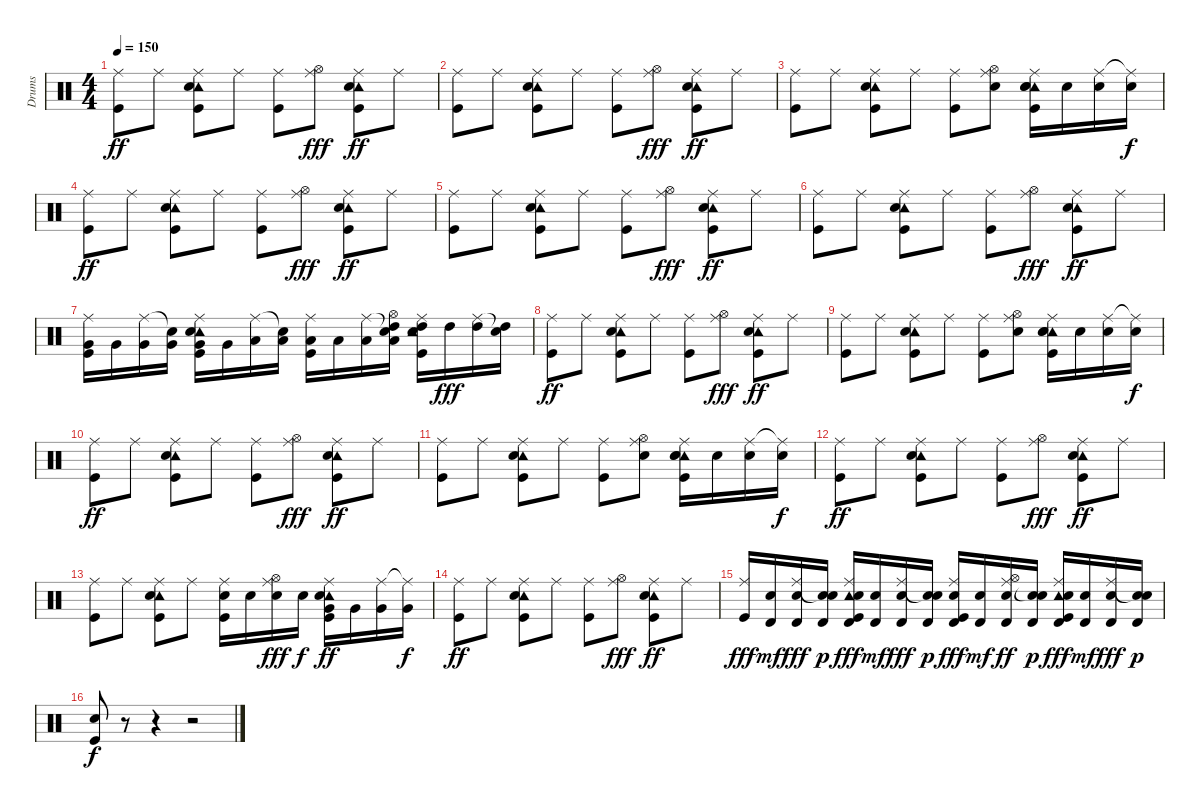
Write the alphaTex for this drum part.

\track ("Drums" "Drums") {instrument percussion}
\staff {score}
\articulation defaults
\ts (4 4)
\tempo 150
\clef neutral
\ks c
("Ride (middle)" "Kick (hit)").8{dy ff} "Ride (middle)".8 ("Ride (middle)" "Tambourine (hit)" "Electric Snare (hit)" "Kick (hit)").8 "Ride (middle)".8 ("Ride (middle)" "Kick (hit)").8 ("Ride (middle)" "Hi-Hat (open)").8{dy fff} ("Ride (middle)" "Tambourine (hit)" "Electric Snare (hit)" "Kick (hit)").8{dy ff} "Ride (middle)".8 |
("Ride (middle)" "Kick (hit)").8 "Ride (middle)".8 ("Ride (middle)" "Tambourine (hit)" "Electric Snare (hit)" "Kick (hit)").8 "Ride (middle)".8 ("Ride (middle)" "Kick (hit)").8 ("Ride (middle)" "Hi-Hat (open)").8{dy fff} ("Ride (middle)" "Tambourine (hit)" "Electric Snare (hit)" "Kick (hit)").8{dy ff} "Ride (middle)".8 |
("Ride (middle)" "Kick (hit)").8 "Ride (middle)".8 ("Ride (middle)" "Tambourine (hit)" "Electric Snare (hit)" "Kick (hit)").8 "Ride (middle)".8 ("Ride (middle)" "Kick (hit)").8 ("Ride (middle)" "Hi-Hat (open)" "Snare (hit) 2").8 ("Ride (middle)" "Tambourine (hit)" "Electric Snare (hit)" "Snare (hit) 2" "Kick (hit)").16 "Snare (hit) 2".16 ("Ride (middle)" "Snare (hit) 2").16 ("Ride (middle)"{t} "Snare (hit) 2").16{dy f} |
("Ride (middle)" "Kick (hit)").8{dy ff} "Ride (middle)".8 ("Ride (middle)" "Tambourine (hit)" "Electric Snare (hit)" "Kick (hit)").8 "Ride (middle)".8 ("Ride (middle)" "Kick (hit)").8 ("Ride (middle)" "Hi-Hat (open)").8{dy fff} ("Ride (middle)" "Tambourine (hit)" "Electric Snare (hit)" "Kick (hit)").8{dy ff} "Ride (middle)".8 |
("Ride (middle)" "Kick (hit)").8 "Ride (middle)".8 ("Ride (middle)" "Tambourine (hit)" "Electric Snare (hit)" "Kick (hit)").8 "Ride (middle)".8 ("Ride (middle)" "Kick (hit)").8 ("Ride (middle)" "Hi-Hat (open)").8{dy fff} ("Ride (middle)" "Tambourine (hit)" "Electric Snare (hit)" "Kick (hit)").8{dy ff} "Ride (middle)".8 |
("Ride (middle)" "Kick (hit)").8 "Ride (middle)".8 ("Ride (middle)" "Tambourine (hit)" "Electric Snare (hit)" "Kick (hit)").8 "Ride (middle)".8 ("Ride (middle)" "Kick (hit)").8 ("Ride (middle)" "Hi-Hat (open)").8{dy fff} ("Ride (middle)" "Tambourine (hit)" "Electric Snare (hit)" "Kick (hit)").8{dy ff} "Ride (middle)".8 |
("Ride (middle)" "Very Low Tom (hit)" "Kick (hit)").16 "Very Low Tom (hit)".16 ("Ride (middle)" "Very Low Tom (hit)").16 ("Snare (hit)"{t} "Very Low Tom (hit)").16 ("Ride (middle)" "Tambourine (hit)" "Electric Snare (hit)" "Very Low Tom (hit)" "Kick (hit)").16 "Very Low Tom (hit)".16 ("Ride (middle)" "Low Floor Tom (hit)").16 ("Snare (hit)"{t} "Low Floor Tom (hit)").16 ("Ride (middle)" "Low Floor Tom (hit)" "Kick (hit)").16 "Low Floor Tom (hit)".16 ("Ride (middle)" "Low Floor Tom (hit)").16 ("Snare (hit)"{t} "Hi-Hat (open)" "High Tom (hit)" "Low Floor Tom (hit)").16 ("Ride (middle)" "Tambourine (hit)" "High Tom (hit)" "Snare (hit) 2" "Kick (hit)").16 "High Tom (hit)".16{dy fff} ("Ride (middle)" "High Tom (hit)").16 ("Snare (hit)"{t} "High Tom (hit)").16 |
("Ride (middle)" "Kick (hit)").8{dy ff} "Ride (middle)".8 ("Ride (middle)" "Tambourine (hit)" "Electric Snare (hit)" "Kick (hit)").8 "Ride (middle)".8 ("Ride (middle)" "Kick (hit)").8 ("Ride (middle)" "Hi-Hat (open)").8{dy fff} ("Ride (middle)" "Tambourine (hit)" "Electric Snare (hit)" "Kick (hit)").8{dy ff} "Ride (middle)".8 |
("Ride (middle)" "Kick (hit)").8 "Ride (middle)".8 ("Ride (middle)" "Tambourine (hit)" "Electric Snare (hit)" "Kick (hit)").8 "Ride (middle)".8 ("Ride (middle)" "Kick (hit)").8 ("Ride (middle)" "Hi-Hat (open)" "Snare (hit) 2").8 ("Ride (middle)" "Tambourine (hit)" "Electric Snare (hit)" "Snare (hit) 2" "Kick (hit)").16 "Snare (hit) 2".16 ("Ride (middle)" "Snare (hit) 2").16 ("Ride (middle)"{t} "Snare (hit) 2").16{dy f} |
("Ride (middle)" "Kick (hit)").8{dy ff} "Ride (middle)".8 ("Ride (middle)" "Tambourine (hit)" "Electric Snare (hit)" "Kick (hit)").8 "Ride (middle)".8 ("Ride (middle)" "Kick (hit)").8 ("Ride (middle)" "Hi-Hat (open)").8{dy fff} ("Ride (middle)" "Tambourine (hit)" "Electric Snare (hit)" "Kick (hit)").8{dy ff} "Ride (middle)".8 |
("Ride (middle)" "Kick (hit)").8 "Ride (middle)".8 ("Ride (middle)" "Tambourine (hit)" "Electric Snare (hit)" "Kick (hit)").8 "Ride (middle)".8 ("Ride (middle)" "Kick (hit)").8 ("Ride (middle)" "Hi-Hat (open)" "Snare (hit) 2").8 ("Ride (middle)" "Tambourine (hit)" "Electric Snare (hit)" "Snare (hit) 2" "Kick (hit)").16 "Snare (hit) 2".16 ("Ride (middle)" "Snare (hit) 2").16 ("Ride (middle)"{t} "Snare (hit) 2").16{dy f} |
("Ride (middle)" "Kick (hit)").8{dy ff} "Ride (middle)".8 ("Ride (middle)" "Tambourine (hit)" "Electric Snare (hit)" "Kick (hit)").8 "Ride (middle)".8 ("Ride (middle)" "Kick (hit)").8 ("Ride (middle)" "Hi-Hat (open)").8{dy fff} ("Ride (middle)" "Tambourine (hit)" "Electric Snare (hit)" "Kick (hit)").8{dy ff} "Ride (middle)".8 |
("Ride (middle)" "Kick (hit)").8 "Ride (middle)".8 ("Ride (middle)" "Tambourine (hit)" "Electric Snare (hit)" "Kick (hit)").8 "Ride (middle)".8 ("Ride (middle)" "Snare (hit) 2" "Kick (hit)").16 "Snare (hit) 2".16 ("Ride (middle)" "Hi-Hat (open)" "Snare (hit) 2").16{dy fff} "Snare (hit) 2".16{dy f} ("Ride (middle)" "Tambourine (hit)" "Electric Snare (hit)" "Very Low Tom (hit)" "Kick (hit)").16{dy ff} "Very Low Tom (hit)".16 ("Ride (middle)" "Very Low Tom (hit)").16 ("Ride (middle)"{t} "Very Low Tom (hit)").16{dy f} |
("Ride (middle)" "Kick (hit)").8{dy ff} "Ride (middle)".8 ("Ride (middle)" "Tambourine (hit)" "Electric Snare (hit)" "Kick (hit)").8 "Ride (middle)".8 ("Ride (middle)" "Kick (hit)").8 ("Ride (middle)" "Hi-Hat (open)").8{dy fff} ("Ride (middle)" "Tambourine (hit)" "Electric Snare (hit)" "Kick (hit)").8{dy ff} "Ride (middle)".8 |
("Ride (middle)" "Kick (hit)").16{dy fff} ("Timbale high (hit)" "Snare (hit) 2").16{dy mf} ("Timbale high (hit)" "Ride (middle)" "Snare (hit) 2").16{dy fff} ("Timbale high (hit)" "Snare (hit)"{t} "Snare (hit) 2").16{dy p} ("Timbale high (hit)" "Ride (middle)" "Tambourine (hit)" "Snare (hit) 2" "Kick (hit)").16{dy fff} ("Timbale high (hit)" "Snare (hit) 2").16{dy mf} ("Timbale high (hit)" "Ride (middle)" "Snare (hit) 2").16{dy fff} ("Timbale high (hit)" "Snare (hit)"{t} "Snare (hit) 2").16{dy p} ("Timbale high (hit)" "Ride (middle)" "Snare (hit) 2" "Kick (hit)").16{dy fff} ("Timbale high (hit)" "Snare (hit) 2").16{dy mf} ("Timbale high (hit)" "Ride (middle)" "Hi-Hat (open)" "Snare (hit) 2").16{dy ff} ("Timbale high (hit)" "Snare (hit)"{t} "Snare (hit) 2").16{dy p} ("Timbale high (hit)" "Ride (middle)" "Tambourine (hit)" "Snare (hit) 2" "Kick (hit)").16{dy fff} ("Timbale high (hit)" "Snare (hit) 2").16{dy mf} ("Timbale high (hit)" "Ride (middle)" "Snare (hit) 2").16{dy fff} ("Timbale high (hit)" "Snare (hit)"{t} "Snare (hit) 2").16{dy p} |
("Electric Snare (hit)" "Kick (hit)").8{dy f} r.8 r.4 r.2
